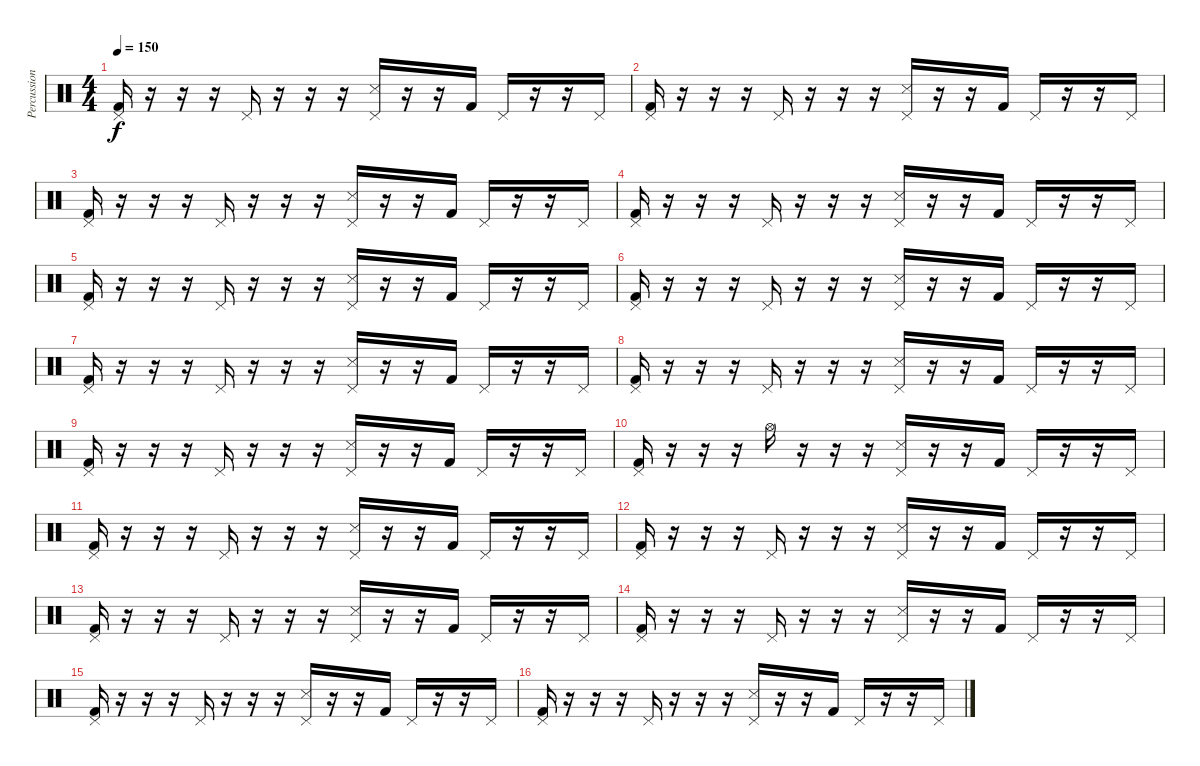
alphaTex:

\track ("Percussion" "Percussion") {instrument percussion}
\staff {score}
\articulation defaults
\ts (4 4)
\tempo 150
\clef neutral
\ks c
("Pedal Hi-Hat (hit)" "Kick (hit) 2").16{dy f} r.16 r.16 r.16 "Pedal Hi-Hat (hit)".16 r.16 r.16 r.16 ("Pedal Hi-Hat (hit)" "Snare (side stick) 3").16 r.16 r.16 "Kick (hit) 2".16 "Pedal Hi-Hat (hit)".16 r.16 r.16 "Pedal Hi-Hat (hit)".16 |
("Pedal Hi-Hat (hit)" "Kick (hit) 2").16 r.16 r.16 r.16 "Pedal Hi-Hat (hit)".16 r.16 r.16 r.16 ("Pedal Hi-Hat (hit)" "Snare (side stick) 3").16 r.16 r.16 "Kick (hit) 2".16 "Pedal Hi-Hat (hit)".16 r.16 r.16 "Pedal Hi-Hat (hit)".16 |
("Pedal Hi-Hat (hit)" "Kick (hit) 2").16 r.16 r.16 r.16 "Pedal Hi-Hat (hit)".16 r.16 r.16 r.16 ("Pedal Hi-Hat (hit)" "Snare (side stick) 3").16 r.16 r.16 "Kick (hit) 2".16 "Pedal Hi-Hat (hit)".16 r.16 r.16 "Pedal Hi-Hat (hit)".16 |
("Pedal Hi-Hat (hit)" "Kick (hit) 2").16 r.16 r.16 r.16 "Pedal Hi-Hat (hit)".16 r.16 r.16 r.16 ("Pedal Hi-Hat (hit)" "Snare (side stick) 3").16 r.16 r.16 "Kick (hit) 2".16 "Pedal Hi-Hat (hit)".16 r.16 r.16 "Pedal Hi-Hat (hit)".16 |
("Pedal Hi-Hat (hit)" "Kick (hit) 2").16 r.16 r.16 r.16 "Pedal Hi-Hat (hit)".16 r.16 r.16 r.16 ("Pedal Hi-Hat (hit)" "Snare (side stick) 3").16 r.16 r.16 "Kick (hit) 2".16 "Pedal Hi-Hat (hit)".16 r.16 r.16 "Pedal Hi-Hat (hit)".16 |
("Pedal Hi-Hat (hit)" "Kick (hit) 2").16 r.16 r.16 r.16 "Pedal Hi-Hat (hit)".16 r.16 r.16 r.16 ("Pedal Hi-Hat (hit)" "Snare (side stick) 3").16 r.16 r.16 "Kick (hit) 2".16 "Pedal Hi-Hat (hit)".16 r.16 r.16 "Pedal Hi-Hat (hit)".16 |
("Pedal Hi-Hat (hit)" "Kick (hit) 2").16 r.16 r.16 r.16 "Pedal Hi-Hat (hit)".16 r.16 r.16 r.16 ("Pedal Hi-Hat (hit)" "Snare (side stick) 3").16 r.16 r.16 "Kick (hit) 2".16 "Pedal Hi-Hat (hit)".16 r.16 r.16 "Pedal Hi-Hat (hit)".16 |
("Pedal Hi-Hat (hit)" "Kick (hit) 2").16 r.16 r.16 r.16 "Pedal Hi-Hat (hit)".16 r.16 r.16 r.16 ("Pedal Hi-Hat (hit)" "Snare (side stick) 3").16 r.16 r.16 "Kick (hit) 2".16 "Pedal Hi-Hat (hit)".16 r.16 r.16 "Pedal Hi-Hat (hit)".16 |
("Pedal Hi-Hat (hit)" "Kick (hit) 2").16 r.16 r.16 r.16 "Pedal Hi-Hat (hit)".16 r.16 r.16 r.16 ("Pedal Hi-Hat (hit)" "Snare (side stick) 3").16 r.16 r.16 "Kick (hit) 2".16 "Pedal Hi-Hat (hit)".16 r.16 r.16 "Pedal Hi-Hat (hit)".16 |
("Pedal Hi-Hat (hit)" "Kick (hit) 2").16 r.16 r.16 r.16 "Hi-Hat (open)".16 r.16 r.16 r.16 ("Pedal Hi-Hat (hit)" "Snare (side stick) 3").16 r.16 r.16 "Kick (hit) 2".16 "Pedal Hi-Hat (hit)".16 r.16 r.16 "Pedal Hi-Hat (hit)".16 |
("Pedal Hi-Hat (hit)" "Kick (hit) 2").16 r.16 r.16 r.16 "Pedal Hi-Hat (hit)".16 r.16 r.16 r.16 ("Pedal Hi-Hat (hit)" "Snare (side stick) 3").16 r.16 r.16 "Kick (hit) 2".16 "Pedal Hi-Hat (hit)".16 r.16 r.16 "Pedal Hi-Hat (hit)".16 |
("Pedal Hi-Hat (hit)" "Kick (hit) 2").16 r.16 r.16 r.16 "Pedal Hi-Hat (hit)".16 r.16 r.16 r.16 ("Pedal Hi-Hat (hit)" "Snare (side stick) 3").16 r.16 r.16 "Kick (hit) 2".16 "Pedal Hi-Hat (hit)".16 r.16 r.16 "Pedal Hi-Hat (hit)".16 |
("Pedal Hi-Hat (hit)" "Kick (hit) 2").16 r.16 r.16 r.16 "Pedal Hi-Hat (hit)".16 r.16 r.16 r.16 ("Pedal Hi-Hat (hit)" "Snare (side stick) 3").16 r.16 r.16 "Kick (hit) 2".16 "Pedal Hi-Hat (hit)".16 r.16 r.16 "Pedal Hi-Hat (hit)".16 |
("Pedal Hi-Hat (hit)" "Kick (hit) 2").16 r.16 r.16 r.16 "Pedal Hi-Hat (hit)".16 r.16 r.16 r.16 ("Pedal Hi-Hat (hit)" "Snare (side stick) 3").16 r.16 r.16 "Kick (hit) 2".16 "Pedal Hi-Hat (hit)".16 r.16 r.16 "Pedal Hi-Hat (hit)".16 |
("Pedal Hi-Hat (hit)" "Kick (hit) 2").16 r.16 r.16 r.16 "Pedal Hi-Hat (hit)".16 r.16 r.16 r.16 ("Pedal Hi-Hat (hit)" "Snare (side stick) 3").16 r.16 r.16 "Kick (hit) 2".16 "Pedal Hi-Hat (hit)".16 r.16 r.16 "Pedal Hi-Hat (hit)".16 |
("Pedal Hi-Hat (hit)" "Kick (hit) 2").16 r.16 r.16 r.16 "Pedal Hi-Hat (hit)".16 r.16 r.16 r.16 ("Pedal Hi-Hat (hit)" "Snare (side stick) 3").16 r.16 r.16 "Kick (hit) 2".16 "Pedal Hi-Hat (hit)".16 r.16 r.16 "Pedal Hi-Hat (hit)".16
